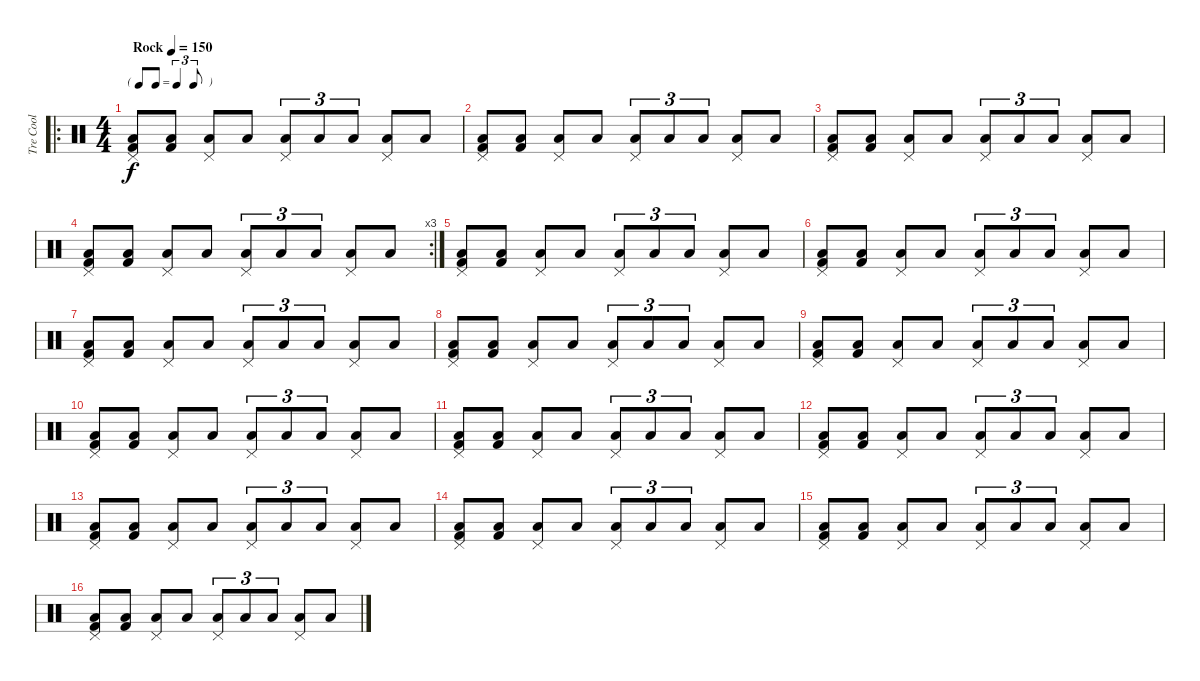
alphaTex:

\track ("Tre Cool" "Tre Cool") {instrument percussion}
\staff {score}
\articulation defaults
\ro
\ts (4 4)
\tf triplet8th
\tempo (150 "Rock")
\clef neutral
\ks c
("Pedal Hi-Hat (hit)" "Low Floor Tom (hit)" "Kick (hit) 2").8{dy f} ("Low Floor Tom (hit)" "Kick (hit) 2").8 ("Pedal Hi-Hat (hit)" "Low Tom (hit)").8 "Low Floor Tom (hit)".8 ("Pedal Hi-Hat (hit)" "Low Floor Tom (hit)").8{tu (3 2)} "Low Floor Tom (hit)".8{tu (3 2)} "Low Floor Tom (hit)".8{tu (3 2)} ("Pedal Hi-Hat (hit)" "Low Tom (hit)").8 "Low Floor Tom (hit)".8 |
("Pedal Hi-Hat (hit)" "Low Floor Tom (hit)" "Kick (hit) 2").8 ("Low Floor Tom (hit)" "Kick (hit) 2").8 ("Pedal Hi-Hat (hit)" "Low Tom (hit)").8 "Low Tom (hit)".8 ("Pedal Hi-Hat (hit)" "Low Floor Tom (hit)").8{tu (3 2)} "Low Floor Tom (hit)".8{tu (3 2)} "Low Floor Tom (hit)".8{tu (3 2)} ("Pedal Hi-Hat (hit)" "Low Tom (hit)").8 "Low Floor Tom (hit)".8 |
("Pedal Hi-Hat (hit)" "Low Floor Tom (hit)" "Kick (hit) 2").8 ("Low Floor Tom (hit)" "Kick (hit) 2").8 ("Pedal Hi-Hat (hit)" "Low Tom (hit)").8 "Low Floor Tom (hit)".8 ("Pedal Hi-Hat (hit)" "Low Floor Tom (hit)").8{tu (3 2)} "Low Floor Tom (hit)".8{tu (3 2)} "Low Floor Tom (hit)".8{tu (3 2)} ("Pedal Hi-Hat (hit)" "Low Tom (hit)").8 "Low Floor Tom (hit)".8 |
\rc 3
("Pedal Hi-Hat (hit)" "Low Floor Tom (hit)" "Kick (hit) 2").8 ("Low Floor Tom (hit)" "Kick (hit) 2").8 ("Pedal Hi-Hat (hit)" "Low Tom (hit)").8 "Low Tom (hit)".8 ("Pedal Hi-Hat (hit)" "Low Floor Tom (hit)").8{tu (3 2)} "Low Floor Tom (hit)".8{tu (3 2)} "Low Floor Tom (hit)".8{tu (3 2)} ("Pedal Hi-Hat (hit)" "Low Tom (hit)").8 "Low Floor Tom (hit)".8 |
("Pedal Hi-Hat (hit)" "Low Floor Tom (hit)" "Kick (hit) 2").8 ("Low Floor Tom (hit)" "Kick (hit) 2").8 ("Pedal Hi-Hat (hit)" "Low Tom (hit)").8 "Low Floor Tom (hit)".8 ("Pedal Hi-Hat (hit)" "Low Floor Tom (hit)").8{tu (3 2)} "Low Floor Tom (hit)".8{tu (3 2)} "Low Floor Tom (hit)".8{tu (3 2)} ("Pedal Hi-Hat (hit)" "Low Tom (hit)").8 "Low Floor Tom (hit)".8 |
("Pedal Hi-Hat (hit)" "Low Floor Tom (hit)" "Kick (hit) 2").8 ("Low Floor Tom (hit)" "Kick (hit) 2").8 ("Pedal Hi-Hat (hit)" "Low Tom (hit)").8 "Low Tom (hit)".8 ("Pedal Hi-Hat (hit)" "Low Floor Tom (hit)").8{tu (3 2)} "Low Floor Tom (hit)".8{tu (3 2)} "Low Floor Tom (hit)".8{tu (3 2)} ("Pedal Hi-Hat (hit)" "Low Tom (hit)").8 "Low Floor Tom (hit)".8 |
("Pedal Hi-Hat (hit)" "Low Floor Tom (hit)" "Kick (hit) 2").8 ("Low Floor Tom (hit)" "Kick (hit) 2").8 ("Pedal Hi-Hat (hit)" "Low Tom (hit)").8 "Low Floor Tom (hit)".8 ("Pedal Hi-Hat (hit)" "Low Floor Tom (hit)").8{tu (3 2)} "Low Floor Tom (hit)".8{tu (3 2)} "Low Floor Tom (hit)".8{tu (3 2)} ("Pedal Hi-Hat (hit)" "Low Tom (hit)").8 "Low Floor Tom (hit)".8 |
("Pedal Hi-Hat (hit)" "Low Floor Tom (hit)" "Kick (hit) 2").8 ("Low Floor Tom (hit)" "Kick (hit) 2").8 ("Pedal Hi-Hat (hit)" "Low Tom (hit)").8 "Low Tom (hit)".8 ("Pedal Hi-Hat (hit)" "Low Floor Tom (hit)").8{tu (3 2)} "Low Floor Tom (hit)".8{tu (3 2)} "Low Floor Tom (hit)".8{tu (3 2)} ("Pedal Hi-Hat (hit)" "Low Tom (hit)").8 "Low Floor Tom (hit)".8 |
("Pedal Hi-Hat (hit)" "Low Floor Tom (hit)" "Kick (hit) 2").8 ("Low Floor Tom (hit)" "Kick (hit) 2").8 ("Pedal Hi-Hat (hit)" "Low Tom (hit)").8 "Low Floor Tom (hit)".8 ("Pedal Hi-Hat (hit)" "Low Floor Tom (hit)").8{tu (3 2)} "Low Floor Tom (hit)".8{tu (3 2)} "Low Floor Tom (hit)".8{tu (3 2)} ("Pedal Hi-Hat (hit)" "Low Tom (hit)").8 "Low Floor Tom (hit)".8 |
("Pedal Hi-Hat (hit)" "Low Floor Tom (hit)" "Kick (hit) 2").8 ("Low Floor Tom (hit)" "Kick (hit) 2").8 ("Pedal Hi-Hat (hit)" "Low Tom (hit)").8 "Low Tom (hit)".8 ("Pedal Hi-Hat (hit)" "Low Floor Tom (hit)").8{tu (3 2)} "Low Floor Tom (hit)".8{tu (3 2)} "Low Floor Tom (hit)".8{tu (3 2)} ("Pedal Hi-Hat (hit)" "Low Tom (hit)").8 "Low Floor Tom (hit)".8 |
("Pedal Hi-Hat (hit)" "Low Floor Tom (hit)" "Kick (hit) 2").8 ("Low Floor Tom (hit)" "Kick (hit) 2").8 ("Pedal Hi-Hat (hit)" "Low Tom (hit)").8 "Low Floor Tom (hit)".8 ("Pedal Hi-Hat (hit)" "Low Floor Tom (hit)").8{tu (3 2)} "Low Floor Tom (hit)".8{tu (3 2)} "Low Floor Tom (hit)".8{tu (3 2)} ("Pedal Hi-Hat (hit)" "Low Tom (hit)").8 "Low Floor Tom (hit)".8 |
("Pedal Hi-Hat (hit)" "Low Floor Tom (hit)" "Kick (hit) 2").8 ("Low Floor Tom (hit)" "Kick (hit) 2").8 ("Pedal Hi-Hat (hit)" "Low Tom (hit)").8 "Low Tom (hit)".8 ("Pedal Hi-Hat (hit)" "Low Floor Tom (hit)").8{tu (3 2)} "Low Floor Tom (hit)".8{tu (3 2)} "Low Floor Tom (hit)".8{tu (3 2)} ("Pedal Hi-Hat (hit)" "Low Tom (hit)").8 "Low Floor Tom (hit)".8 |
("Pedal Hi-Hat (hit)" "Low Floor Tom (hit)" "Kick (hit) 2").8 ("Low Floor Tom (hit)" "Kick (hit) 2").8 ("Pedal Hi-Hat (hit)" "Low Tom (hit)").8 "Low Floor Tom (hit)".8 ("Pedal Hi-Hat (hit)" "Low Floor Tom (hit)").8{tu (3 2)} "Low Floor Tom (hit)".8{tu (3 2)} "Low Floor Tom (hit)".8{tu (3 2)} ("Pedal Hi-Hat (hit)" "Low Tom (hit)").8 "Low Floor Tom (hit)".8 |
("Pedal Hi-Hat (hit)" "Low Floor Tom (hit)" "Kick (hit) 2").8 ("Low Floor Tom (hit)" "Kick (hit) 2").8 ("Pedal Hi-Hat (hit)" "Low Tom (hit)").8 "Low Tom (hit)".8 ("Pedal Hi-Hat (hit)" "Low Floor Tom (hit)").8{tu (3 2)} "Low Floor Tom (hit)".8{tu (3 2)} "Low Floor Tom (hit)".8{tu (3 2)} ("Pedal Hi-Hat (hit)" "Low Tom (hit)").8 "Low Floor Tom (hit)".8 |
("Pedal Hi-Hat (hit)" "Low Floor Tom (hit)" "Kick (hit) 2").8 ("Low Floor Tom (hit)" "Kick (hit) 2").8 ("Pedal Hi-Hat (hit)" "Low Tom (hit)").8 "Low Floor Tom (hit)".8 ("Pedal Hi-Hat (hit)" "Low Floor Tom (hit)").8{tu (3 2)} "Low Floor Tom (hit)".8{tu (3 2)} "Low Floor Tom (hit)".8{tu (3 2)} ("Pedal Hi-Hat (hit)" "Low Tom (hit)").8 "Low Floor Tom (hit)".8 |
("Pedal Hi-Hat (hit)" "Low Floor Tom (hit)" "Kick (hit) 2").8 ("Low Floor Tom (hit)" "Kick (hit) 2").8 ("Pedal Hi-Hat (hit)" "Low Tom (hit)").8 "Low Tom (hit)".8 ("Pedal Hi-Hat (hit)" "Low Floor Tom (hit)").8{tu (3 2)} "Low Floor Tom (hit)".8{tu (3 2)} "Low Floor Tom (hit)".8{tu (3 2)} ("Pedal Hi-Hat (hit)" "Low Tom (hit)").8 "Low Floor Tom (hit)".8
